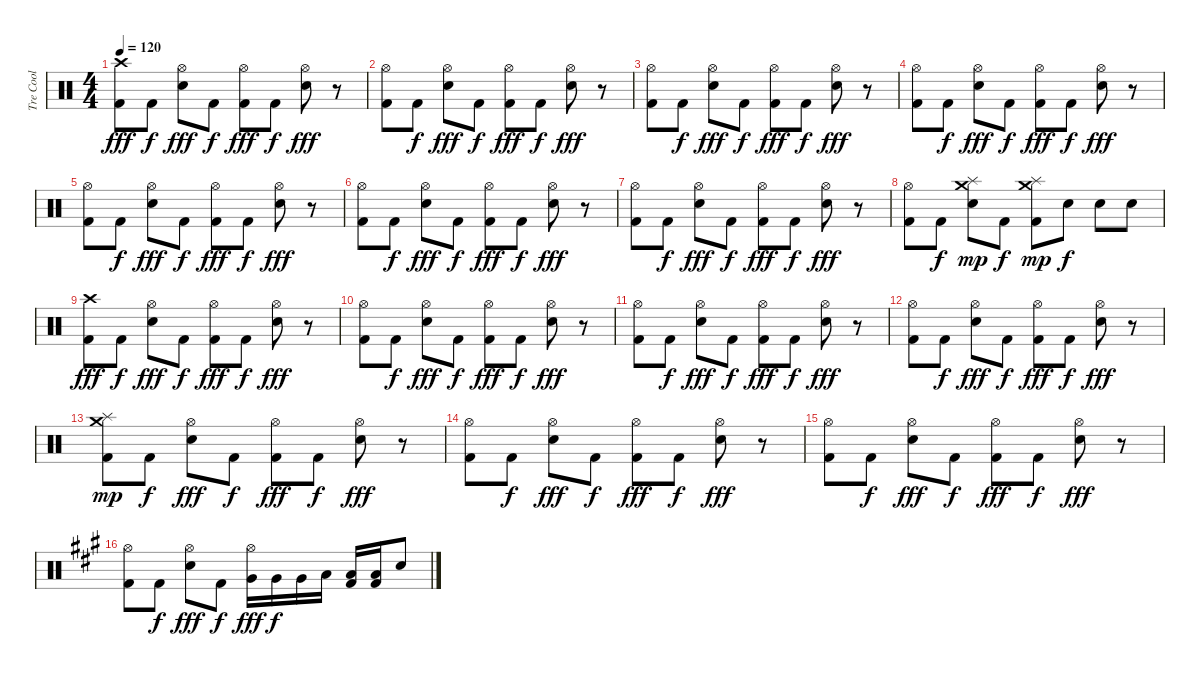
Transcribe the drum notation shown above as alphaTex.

\track ("Tre Cool" "Tre Cool") {instrument percussion}
\staff {score}
\articulation defaults
\ts (4 4)
\tempo 120
\clef neutral
\ks c
("Kick (hit) 2" "Crash high (hit)").8{dy fff} "Kick (hit) 2".8{dy f} ("Electric Snare (hit)" "Hi-Hat (open)").8{dy fff} "Kick (hit) 2".8{dy f} ("Kick (hit) 2" "Hi-Hat (open)").8{dy fff} "Kick (hit) 2".8{dy f} ("Electric Snare (hit)" "Hi-Hat (open)").8{dy fff} r.8 |
("Kick (hit) 2" "Hi-Hat (open)").8 "Kick (hit) 2".8{dy f} ("Electric Snare (hit)" "Hi-Hat (open)").8{dy fff} "Kick (hit) 2".8{dy f} ("Kick (hit) 2" "Hi-Hat (open)").8{dy fff} "Kick (hit) 2".8{dy f} ("Electric Snare (hit)" "Hi-Hat (open)").8{dy fff} r.8 |
("Kick (hit) 2" "Hi-Hat (open)").8 "Kick (hit) 2".8{dy f} ("Electric Snare (hit)" "Hi-Hat (open)").8{dy fff} "Kick (hit) 2".8{dy f} ("Kick (hit) 2" "Hi-Hat (open)").8{dy fff} "Kick (hit) 2".8{dy f} ("Electric Snare (hit)" "Hi-Hat (open)").8{dy fff} r.8 |
("Kick (hit) 2" "Hi-Hat (open)").8 "Kick (hit) 2".8{dy f} ("Electric Snare (hit)" "Hi-Hat (open)").8{dy fff} "Kick (hit) 2".8{dy f} ("Kick (hit) 2" "Hi-Hat (open)").8{dy fff} "Kick (hit) 2".8{dy f} ("Electric Snare (hit)" "Hi-Hat (open)").8{dy fff} r.8 |
("Kick (hit) 2" "Hi-Hat (open)").8 "Kick (hit) 2".8{dy f} ("Electric Snare (hit)" "Hi-Hat (open)").8{dy fff} "Kick (hit) 2".8{dy f} ("Kick (hit) 2" "Hi-Hat (open)").8{dy fff} "Kick (hit) 2".8{dy f} ("Electric Snare (hit)" "Hi-Hat (open)").8{dy fff} r.8 |
("Kick (hit) 2" "Hi-Hat (open)").8 "Kick (hit) 2".8{dy f} ("Electric Snare (hit)" "Hi-Hat (open)").8{dy fff} "Kick (hit) 2".8{dy f} ("Kick (hit) 2" "Hi-Hat (open)").8{dy fff} "Kick (hit) 2".8{dy f} ("Electric Snare (hit)" "Hi-Hat (open)").8{dy fff} r.8 |
("Kick (hit) 2" "Hi-Hat (open)").8 "Kick (hit) 2".8{dy f} ("Electric Snare (hit)" "Hi-Hat (open)").8{dy fff} "Kick (hit) 2".8{dy f} ("Kick (hit) 2" "Hi-Hat (open)").8{dy fff} "Kick (hit) 2".8{dy f} ("Electric Snare (hit)" "Hi-Hat (open)").8{dy fff} r.8 |
("Kick (hit) 2" "Hi-Hat (open)").8 "Kick (hit) 2".8{dy f} ("Electric Snare (hit)" "Splash (hit)" "Crash medium (hit)").8{dy mp} "Kick (hit) 2".8{dy f} ("Kick (hit) 2" "Splash (hit)" "Crash medium (hit)").8{dy mp} "Electric Snare (hit)".8{dy f} "Electric Snare (hit)".8 "Electric Snare (hit)".8 |
("Kick (hit) 2" "Crash high (hit)").8{dy fff} "Kick (hit) 2".8{dy f} ("Electric Snare (hit)" "Hi-Hat (open)").8{dy fff} "Kick (hit) 2".8{dy f} ("Kick (hit) 2" "Hi-Hat (open)").8{dy fff} "Kick (hit) 2".8{dy f} ("Electric Snare (hit)" "Hi-Hat (open)").8{dy fff} r.8 |
("Kick (hit) 2" "Hi-Hat (open)").8 "Kick (hit) 2".8{dy f} ("Electric Snare (hit)" "Hi-Hat (open)").8{dy fff} "Kick (hit) 2".8{dy f} ("Kick (hit) 2" "Hi-Hat (open)").8{dy fff} "Kick (hit) 2".8{dy f} ("Electric Snare (hit)" "Hi-Hat (open)").8{dy fff} r.8 |
("Kick (hit) 2" "Hi-Hat (open)").8 "Kick (hit) 2".8{dy f} ("Electric Snare (hit)" "Hi-Hat (open)").8{dy fff} "Kick (hit) 2".8{dy f} ("Kick (hit) 2" "Hi-Hat (open)").8{dy fff} "Kick (hit) 2".8{dy f} ("Electric Snare (hit)" "Hi-Hat (open)").8{dy fff} r.8 |
("Kick (hit) 2" "Hi-Hat (open)").8 "Kick (hit) 2".8{dy f} ("Electric Snare (hit)" "Hi-Hat (open)").8{dy fff} "Kick (hit) 2".8{dy f} ("Kick (hit) 2" "Hi-Hat (open)").8{dy fff} "Kick (hit) 2".8{dy f} ("Electric Snare (hit)" "Hi-Hat (open)").8{dy fff} r.8 |
("Kick (hit) 2" "Splash (hit)" "Crash medium (hit)").8{dy mp} "Kick (hit) 2".8{dy f} ("Electric Snare (hit)" "Hi-Hat (open)").8{dy fff} "Kick (hit) 2".8{dy f} ("Kick (hit) 2" "Hi-Hat (open)").8{dy fff} "Kick (hit) 2".8{dy f} ("Electric Snare (hit)" "Hi-Hat (open)").8{dy fff} r.8 |
("Kick (hit) 2" "Hi-Hat (open)").8 "Kick (hit) 2".8{dy f} ("Electric Snare (hit)" "Hi-Hat (open)").8{dy fff} "Kick (hit) 2".8{dy f} ("Kick (hit) 2" "Hi-Hat (open)").8{dy fff} "Kick (hit) 2".8{dy f} ("Electric Snare (hit)" "Hi-Hat (open)").8{dy fff} r.8 |
("Kick (hit) 2" "Hi-Hat (open)").8 "Kick (hit) 2".8{dy f} ("Electric Snare (hit)" "Hi-Hat (open)").8{dy fff} "Kick (hit) 2".8{dy f} ("Kick (hit) 2" "Hi-Hat (open)").8{dy fff} "Kick (hit) 2".8{dy f} ("Electric Snare (hit)" "Hi-Hat (open)").8{dy fff} r.8 |
\ks a
("Kick (hit) 2" "Hi-Hat (open)").8 "Kick (hit) 2".8{dy f} ("Electric Snare (hit)" "Hi-Hat (open)").8{dy fff} "Kick (hit) 2".8{dy f} ("Very Low Tom (hit)" "Hi-Hat (open)").16{dy fff} "Very Low Tom (hit)".16{dy f} "Very Low Tom (hit)".16 "Low Tom (hit)".16 ("Kick (hit) 2" "Low Tom (hit)").16 ("Kick (hit) 2" "Low Tom (hit)").16 "Snare (hit) 2".8
